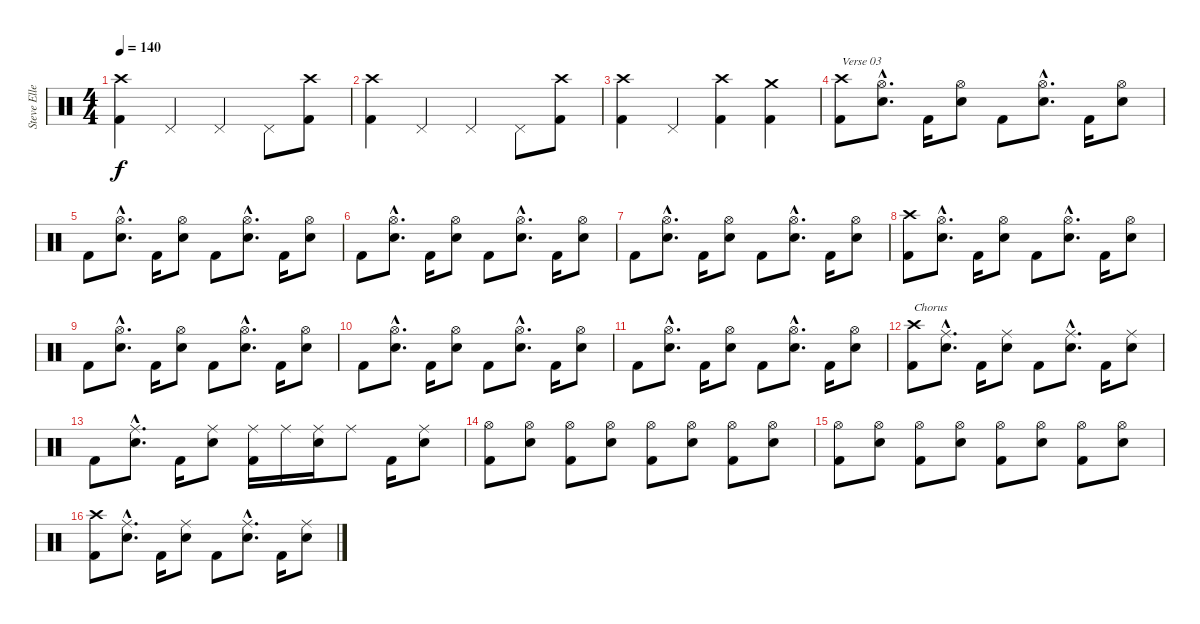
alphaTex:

\track ("Steve Ellett" "Steve Elle") {instrument percussion}
\staff {score}
\articulation defaults
\ts (4 4)
\tempo 140
\clef neutral
\ks c
("Crash high (hit)" "Kick (hit) 2").4{dy f} "Pedal Hi-Hat (hit)".4 "Pedal Hi-Hat (hit)".4 "Pedal Hi-Hat (hit)".8 ("Crash high (hit)" "Kick (hit) 2").8 |
("Crash high (hit)" "Kick (hit) 2").4 "Pedal Hi-Hat (hit)".4 "Pedal Hi-Hat (hit)".4 "Pedal Hi-Hat (hit)".8 ("Crash high (hit)" "Kick (hit) 2").8 |
("Crash high (hit)" "Kick (hit) 2").4 "Pedal Hi-Hat (hit)".4 ("Crash high (hit)" "Kick (hit) 2").4 ("Crash medium (hit)" "Kick (hit) 2").4 |
("Crash high (hit)" "Kick (hit) 2").8{txt "Verse 03"} ("Hi-Hat (open)"{hac} "Snare (hit) 2"{hac}).8{d} "Kick (hit) 2".16 ("Hi-Hat (open)" "Snare (hit) 2").8 "Kick (hit) 2".8 ("Hi-Hat (open)"{hac} "Snare (hit) 2"{hac}).8{d} "Kick (hit) 2".16 ("Hi-Hat (open)" "Snare (hit) 2").8 |
"Kick (hit) 2".8 ("Hi-Hat (open)"{hac} "Snare (hit) 2"{hac}).8{d} "Kick (hit) 2".16 ("Hi-Hat (open)" "Snare (hit) 2").8 "Kick (hit) 2".8 ("Hi-Hat (open)"{hac} "Snare (hit) 2"{hac}).8{d} "Kick (hit) 2".16 ("Hi-Hat (open)" "Snare (hit) 2").8 |
"Kick (hit) 2".8 ("Hi-Hat (open)"{hac} "Snare (hit) 2"{hac}).8{d} "Kick (hit) 2".16 ("Hi-Hat (open)" "Snare (hit) 2").8 "Kick (hit) 2".8 ("Hi-Hat (open)"{hac} "Snare (hit) 2"{hac}).8{d} "Kick (hit) 2".16 ("Hi-Hat (open)" "Snare (hit) 2").8 |
"Kick (hit) 2".8 ("Hi-Hat (open)"{hac} "Snare (hit) 2"{hac}).8{d} "Kick (hit) 2".16 ("Hi-Hat (open)" "Snare (hit) 2").8 "Kick (hit) 2".8 ("Hi-Hat (open)"{hac} "Snare (hit) 2"{hac}).8{d} "Kick (hit) 2".16 ("Hi-Hat (open)" "Snare (hit) 2").8 |
("Crash high (hit)" "Kick (hit) 2").8 ("Hi-Hat (open)"{hac} "Snare (hit) 2"{hac}).8{d} "Kick (hit) 2".16 ("Hi-Hat (open)" "Snare (hit) 2").8 "Kick (hit) 2".8 ("Hi-Hat (open)"{hac} "Snare (hit) 2"{hac}).8{d} "Kick (hit) 2".16 ("Hi-Hat (open)" "Snare (hit) 2").8 |
"Kick (hit) 2".8 ("Hi-Hat (open)"{hac} "Snare (hit) 2"{hac}).8{d} "Kick (hit) 2".16 ("Hi-Hat (open)" "Snare (hit) 2").8 "Kick (hit) 2".8 ("Hi-Hat (open)"{hac} "Snare (hit) 2"{hac}).8{d} "Kick (hit) 2".16 ("Hi-Hat (open)" "Snare (hit) 2").8 |
"Kick (hit) 2".8 ("Hi-Hat (open)"{hac} "Snare (hit) 2"{hac}).8{d} "Kick (hit) 2".16 ("Hi-Hat (open)" "Snare (hit) 2").8 "Kick (hit) 2".8 ("Hi-Hat (open)"{hac} "Snare (hit) 2"{hac}).8{d} "Kick (hit) 2".16 ("Hi-Hat (open)" "Snare (hit) 2").8 |
"Kick (hit) 2".8 ("Hi-Hat (open)"{hac} "Snare (hit) 2"{hac}).8{d} "Kick (hit) 2".16 ("Hi-Hat (open)" "Snare (hit) 2").8 "Kick (hit) 2".8 ("Hi-Hat (open)"{hac} "Snare (hit) 2"{hac}).8{d} "Kick (hit) 2".16 ("Hi-Hat (open)" "Snare (hit) 2").8 |
("Crash high (hit)" "Kick (hit) 2").8{txt "Chorus"} ("Ride (middle)"{hac} "Snare (hit) 2"{hac}).8{d} "Kick (hit) 2".16 ("Ride (middle)" "Snare (hit) 2").8 "Kick (hit) 2".8 ("Ride (middle)"{hac} "Snare (hit) 2"{hac}).8{d} "Kick (hit) 2".16 ("Ride (middle)" "Snare (hit) 2").8 |
"Kick (hit) 2".8 ("Ride (middle)"{hac} "Snare (hit) 2"{hac}).8{d} "Kick (hit) 2".16 ("Ride (middle)" "Snare (hit) 2").8 ("Ride (middle)" "Kick (hit) 2").16 "Ride (middle)".16 ("Ride (middle)" "Snare (hit) 2").16 "Ride (middle)".8 "Kick (hit) 2".16 ("Ride (middle)" "Snare (hit) 2").8 |
("Hi-Hat (open)" "Kick (hit) 2").8 ("Hi-Hat (open)" "Snare (hit) 2").8 ("Hi-Hat (open)" "Kick (hit) 2").8 ("Hi-Hat (open)" "Snare (hit) 2").8 ("Hi-Hat (open)" "Kick (hit) 2").8 ("Hi-Hat (open)" "Snare (hit) 2").8 ("Hi-Hat (open)" "Kick (hit) 2").8 ("Hi-Hat (open)" "Snare (hit) 2").8 |
("Hi-Hat (open)" "Kick (hit) 2").8 ("Hi-Hat (open)" "Snare (hit) 2").8 ("Hi-Hat (open)" "Kick (hit) 2").8 ("Hi-Hat (open)" "Snare (hit) 2").8 ("Hi-Hat (open)" "Kick (hit) 2").8 ("Hi-Hat (open)" "Snare (hit) 2").8 ("Hi-Hat (open)" "Kick (hit) 2").8 ("Hi-Hat (open)" "Snare (hit) 2").8 |
("Crash high (hit)" "Kick (hit) 2").8 ("Ride (middle)"{hac} "Snare (hit) 2"{hac}).8{d} "Kick (hit) 2".16 ("Ride (middle)" "Snare (hit) 2").8 "Kick (hit) 2".8 ("Ride (middle)"{hac} "Snare (hit) 2"{hac}).8{d} "Kick (hit) 2".16 ("Ride (middle)" "Snare (hit) 2").8
